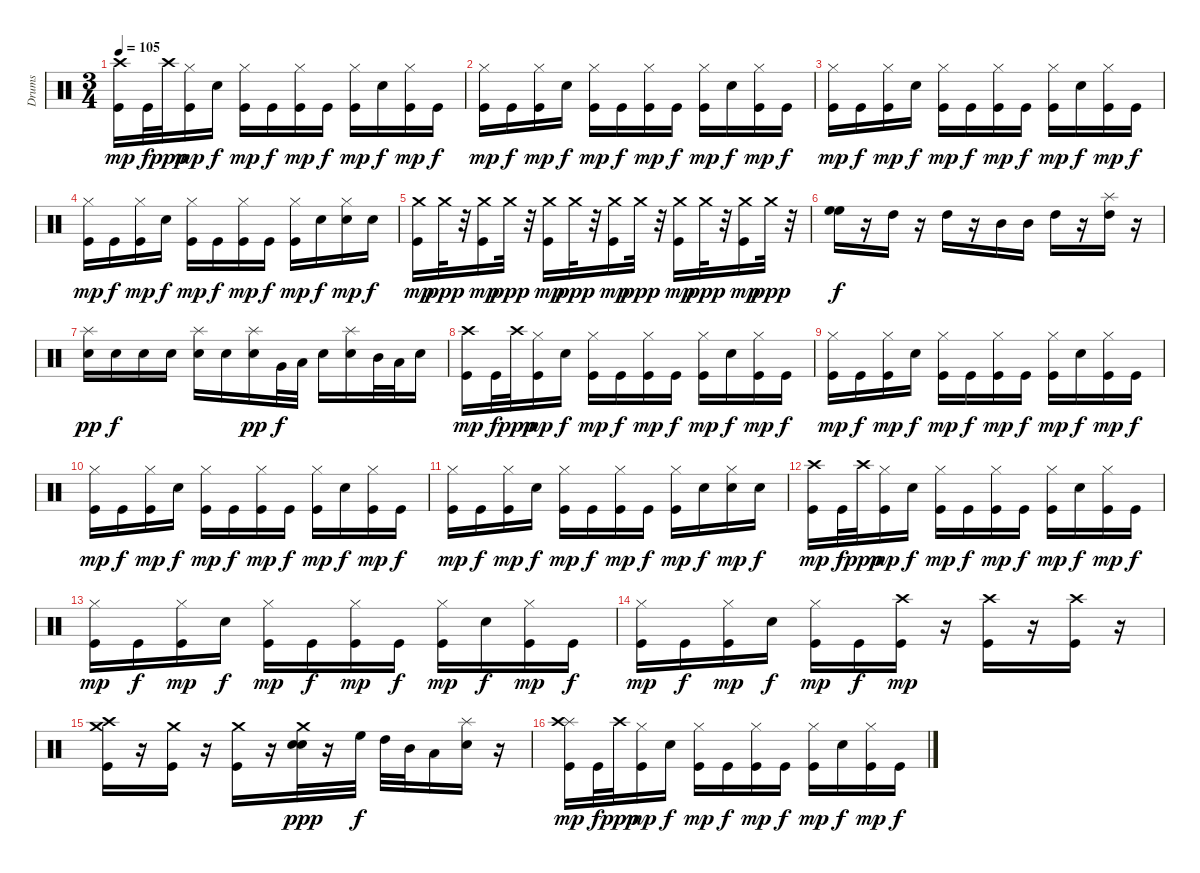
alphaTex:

\track ("Drums" "Drums") {instrument percussion}
\staff {score}
\articulation defaults
\ts (3 4)
\tempo 105
\clef neutral
\ks c
("Crash high (hit)" "Kick (hit)").16{dy mp} "Kick (hit)".32{dy f} "Crash high (hit)".32{dy ppp} ("Hi-Hat (closed)" "Kick (hit)").16{dy mp} "Snare (hit) 2".16{dy f} ("Hi-Hat (closed)" "Kick (hit)").16{dy mp} "Kick (hit)".16{dy f} ("Hi-Hat (closed)" "Kick (hit)").16{dy mp} "Kick (hit)".16{dy f} ("Hi-Hat (closed)" "Kick (hit)").16{dy mp} "Snare (hit) 2".16{dy f} ("Hi-Hat (closed)" "Kick (hit)").16{dy mp} "Kick (hit)".16{dy f} |
("Hi-Hat (closed)" "Kick (hit)").16{dy mp} "Kick (hit)".16{dy f} ("Hi-Hat (closed)" "Kick (hit)").16{dy mp} "Snare (hit) 2".16{dy f} ("Hi-Hat (closed)" "Kick (hit)").16{dy mp} "Kick (hit)".16{dy f} ("Hi-Hat (closed)" "Kick (hit)").16{dy mp} "Kick (hit)".16{dy f} ("Hi-Hat (closed)" "Kick (hit)").16{dy mp} "Snare (hit) 2".16{dy f} ("Hi-Hat (closed)" "Kick (hit)").16{dy mp} "Kick (hit)".16{dy f} |
("Hi-Hat (closed)" "Kick (hit)").16{dy mp} "Kick (hit)".16{dy f} ("Hi-Hat (closed)" "Kick (hit)").16{dy mp} "Snare (hit) 2".16{dy f} ("Hi-Hat (closed)" "Kick (hit)").16{dy mp} "Kick (hit)".16{dy f} ("Hi-Hat (closed)" "Kick (hit)").16{dy mp} "Kick (hit)".16{dy f} ("Hi-Hat (closed)" "Kick (hit)").16{dy mp} "Snare (hit) 2".16{dy f} ("Hi-Hat (closed)" "Kick (hit)").16{dy mp} "Kick (hit)".16{dy f} |
("Hi-Hat (closed)" "Kick (hit)").16{dy mp} "Kick (hit)".16{dy f} ("Hi-Hat (closed)" "Kick (hit)").16{dy mp} "Snare (hit) 2".16{dy f} ("Hi-Hat (closed)" "Kick (hit)").16{dy mp} "Kick (hit)".16{dy f} ("Hi-Hat (closed)" "Kick (hit)").16{dy mp} "Kick (hit)".16{dy f} ("Hi-Hat (closed)" "Kick (hit)").16{dy mp} "Snare (hit) 2".16{dy f} ("Hi-Hat (closed)" "Snare (hit) 2").16{dy mp} "Snare (hit) 2".16{dy f} |
("Crash medium (hit)" "Kick (hit)").16{dy mp} "Crash medium (hit)".32{dy ppp} r.32 ("Crash medium (hit)" "Kick (hit)").16{dy mp} "Crash medium (hit)".32{dy ppp} r.32 ("Crash medium (hit)" "Kick (hit)").16{dy mp} "Crash medium (hit)".32{dy ppp} r.32 ("Crash medium (hit)" "Kick (hit)").16{dy mp} "Crash medium (hit)".32{dy ppp} r.32 ("Crash medium (hit)" "Kick (hit)").16{dy mp} "Crash medium (hit)".32{dy ppp} r.32 ("Crash medium (hit)" "Kick (hit)").16{dy mp} "Crash medium (hit)".32{dy ppp} r.32 |
("High Floor Tom (hit)" "High Floor Tom (hit)").16{dy f} r.16 "High Tom (hit)".16 r.16 "High Tom (hit)".16 r.16 "Mid Tom (hit)".16 "Mid Tom (hit)".16 "High Tom (hit)".16 r.16 ("Splash (hit)" "High Tom (hit)").16 r.16 |
("Splash (hit)" "Snare (hit) 2").16{dy pp} "Snare (hit) 2".16{dy f} "Snare (hit) 2".16 "Snare (hit) 2".16 ("Splash (hit)" "Snare (hit) 2").16 "Snare (hit) 2".16 ("Splash (hit)" "Snare (hit) 2").16{dy pp} "Very Low Tom (hit)".32{dy f} "Low Floor Tom (hit)".32 "Snare (hit) 2".16 ("Splash (hit)" "Snare (hit) 2").16 "Mid Tom (hit)".32 "Low Tom (hit)".32 "Snare (hit) 2".16 |
("Crash high (hit)" "Kick (hit)").16{dy mp} "Kick (hit)".32{dy f} "Crash high (hit)".32{dy ppp} ("Hi-Hat (closed)" "Kick (hit)").16{dy mp} "Snare (hit) 2".16{dy f} ("Hi-Hat (closed)" "Kick (hit)").16{dy mp} "Kick (hit)".16{dy f} ("Hi-Hat (closed)" "Kick (hit)").16{dy mp} "Kick (hit)".16{dy f} ("Hi-Hat (closed)" "Kick (hit)").16{dy mp} "Snare (hit) 2".16{dy f} ("Hi-Hat (closed)" "Kick (hit)").16{dy mp} "Kick (hit)".16{dy f} |
("Hi-Hat (closed)" "Kick (hit)").16{dy mp} "Kick (hit)".16{dy f} ("Hi-Hat (closed)" "Kick (hit)").16{dy mp} "Snare (hit) 2".16{dy f} ("Hi-Hat (closed)" "Kick (hit)").16{dy mp} "Kick (hit)".16{dy f} ("Hi-Hat (closed)" "Kick (hit)").16{dy mp} "Kick (hit)".16{dy f} ("Hi-Hat (closed)" "Kick (hit)").16{dy mp} "Snare (hit) 2".16{dy f} ("Hi-Hat (closed)" "Kick (hit)").16{dy mp} "Kick (hit)".16{dy f} |
("Hi-Hat (closed)" "Kick (hit)").16{dy mp} "Kick (hit)".16{dy f} ("Hi-Hat (closed)" "Kick (hit)").16{dy mp} "Snare (hit) 2".16{dy f} ("Hi-Hat (closed)" "Kick (hit)").16{dy mp} "Kick (hit)".16{dy f} ("Hi-Hat (closed)" "Kick (hit)").16{dy mp} "Kick (hit)".16{dy f} ("Hi-Hat (closed)" "Kick (hit)").16{dy mp} "Snare (hit) 2".16{dy f} ("Hi-Hat (closed)" "Kick (hit)").16{dy mp} "Kick (hit)".16{dy f} |
("Hi-Hat (closed)" "Kick (hit)").16{dy mp} "Kick (hit)".16{dy f} ("Hi-Hat (closed)" "Kick (hit)").16{dy mp} "Snare (hit) 2".16{dy f} ("Hi-Hat (closed)" "Kick (hit)").16{dy mp} "Kick (hit)".16{dy f} ("Hi-Hat (closed)" "Kick (hit)").16{dy mp} "Kick (hit)".16{dy f} ("Hi-Hat (closed)" "Kick (hit)").16{dy mp} "Snare (hit) 2".16{dy f} ("Hi-Hat (closed)" "Snare (hit) 2").16{dy mp} "Snare (hit) 2".16{dy f} |
("Crash high (hit)" "Kick (hit)").16{dy mp} "Kick (hit)".32{dy f} "Crash high (hit)".32{dy ppp} ("Hi-Hat (closed)" "Kick (hit)").16{dy mp} "Snare (hit) 2".16{dy f} ("Hi-Hat (closed)" "Kick (hit)").16{dy mp} "Kick (hit)".16{dy f} ("Hi-Hat (closed)" "Kick (hit)").16{dy mp} "Kick (hit)".16{dy f} ("Hi-Hat (closed)" "Kick (hit)").16{dy mp} "Snare (hit) 2".16{dy f} ("Hi-Hat (closed)" "Kick (hit)").16{dy mp} "Kick (hit)".16{dy f} |
("Hi-Hat (closed)" "Kick (hit)").16{dy mp} "Kick (hit)".16{dy f} ("Hi-Hat (closed)" "Kick (hit)").16{dy mp} "Snare (hit) 2".16{dy f} ("Hi-Hat (closed)" "Kick (hit)").16{dy mp} "Kick (hit)".16{dy f} ("Hi-Hat (closed)" "Kick (hit)").16{dy mp} "Kick (hit)".16{dy f} ("Hi-Hat (closed)" "Kick (hit)").16{dy mp} "Snare (hit) 2".16{dy f} ("Hi-Hat (closed)" "Kick (hit)").16{dy mp} "Kick (hit)".16{dy f} |
("Hi-Hat (closed)" "Kick (hit)").16{dy mp} "Kick (hit)".16{dy f} ("Hi-Hat (closed)" "Kick (hit)").16{dy mp} "Snare (hit) 2".16{dy f} ("Hi-Hat (closed)" "Kick (hit)").16{dy mp} "Kick (hit)".16{dy f} ("Crash high (hit)" "Kick (hit)").16{dy mp} r.16 ("Crash high (hit)" "Kick (hit)").16 r.16 ("Crash high (hit)" "Kick (hit)").16 r.16 |
("Crash high (hit)" "Kick (hit)" "Crash medium (hit)").16 r.16 ("Crash medium (hit)" "Kick (hit)").16 r.16 ("Crash medium (hit)" "Kick (hit)").16 r.16 ("Crash medium (hit)" "Snare (hit) 2" "Snare (hit) 2").32{dy ppp} r.16 "High Floor Tom (hit)".32{dy f} "High Tom (hit)".32 "Mid Tom (hit)".32 "Low Tom (hit)".16 ("Splash (hit)" "Snare (hit) 2").16 r.16 |
("Splash (hit)" "Crash high (hit)" "Kick (hit)").16{dy mp} "Kick (hit)".32{dy f} "Crash high (hit)".32{dy ppp} ("Hi-Hat (closed)" "Kick (hit)").16{dy mp} "Snare (hit) 2".16{dy f} ("Hi-Hat (closed)" "Kick (hit)").16{dy mp} "Kick (hit)".16{dy f} ("Hi-Hat (closed)" "Kick (hit)").16{dy mp} "Kick (hit)".16{dy f} ("Hi-Hat (closed)" "Kick (hit)").16{dy mp} "Snare (hit) 2".16{dy f} ("Hi-Hat (closed)" "Kick (hit)").16{dy mp} "Kick (hit)".16{dy f}
